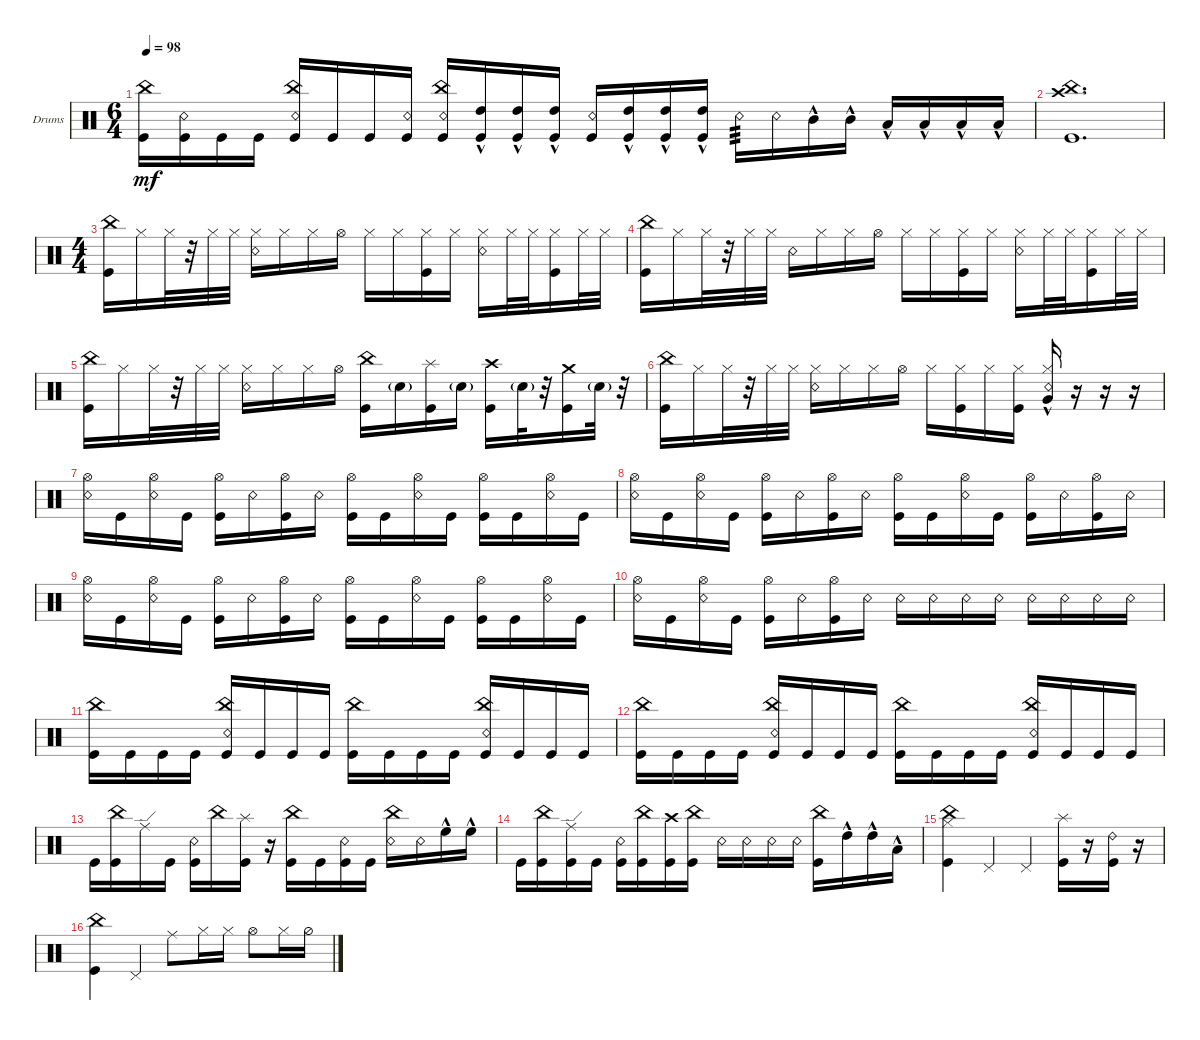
\defaultSystemsLayout 4
\bracketExtendMode groupsimilarinstruments
\firstSystemTrackNameOrientation horizontal
\otherSystemsTrackNameOrientation horizontal
\track ("Drumkit" "Drums") {instrument percussion}
\staff {score}
\articulation defaults
\ts (6 4)
\tempo 98
\clef neutral
\scale
0.333333
\ks c
("Kick (hit)" "China (hit)").16{dy mf} ("Kick (hit)" "Snare (rim shot)").16 "Kick (hit)".16 "Kick (hit)".16 ("Kick (hit)" "China (hit)" "Snare (rim shot)").16 "Kick (hit)".16 "Kick (hit)".16 ("Kick (hit)" "Snare (rim shot)").16 ("Kick (hit)" "China (hit)" "Snare (rim shot)").16 ("Kick (hit)" "High Tom (hit)"{hac}).16 ("Kick (hit)" "High Tom (hit)"{hac}).16 ("Kick (hit)" "High Tom (hit)"{hac}).16 ("Kick (hit)" "Snare (rim shot)").16 ("Kick (hit)" "High Tom (hit)"{hac}).16 ("Kick (hit)" "High Tom (hit)"{hac}).16 ("Kick (hit)" "High Tom (hit)"{hac}).16 "Snare (rim shot)".16{tp 3} "Snare (rim shot)".16 "Mid Tom (hit)"{hac}.16 "Mid Tom (hit)"{hac}.16 "Low Tom (hit)"{hac}.16 "Low Tom (hit)"{hac}.16 "Low Tom (hit)"{hac}.16 "Low Tom (hit)"{hac}.16 |
("Kick (hit)" "China (hit)" "Crash high (hit)").1{d} |
\ts (4 4)
\scale
0.333333 ("Kick (hit)" "China (hit)").16 "Hi-Hat (closed)".16 "Hi-Hat (closed)".32 r.32 "Hi-Hat (closed)".32 "Hi-Hat (closed)".32 ("Hi-Hat (closed)" "Snare (rim shot)").16 "Hi-Hat (closed)".16 "Hi-Hat (closed)".16 "Hi-Hat (open)".16 "Hi-Hat (closed)".16 "Hi-Hat (closed)".16 ("Hi-Hat (closed)" "Kick (hit)").16 "Hi-Hat (closed)".16 ("Hi-Hat (closed)" "Snare (rim shot)").16 "Hi-Hat (closed)".32 "Hi-Hat (closed)".32 ("Hi-Hat (closed)" "Kick (hit)").16 "Hi-Hat (closed)".32 "Hi-Hat (closed)".32 |
\scale
0.333333 ("Kick (hit)" "China (hit)").16 "Hi-Hat (closed)".16 "Hi-Hat (closed)".32 r.32 "Hi-Hat (closed)".32 "Hi-Hat (closed)".32 "Snare (rim shot)".16 "Hi-Hat (closed)".16 "Hi-Hat (closed)".16 "Hi-Hat (open)".16 "Hi-Hat (closed)".16 "Hi-Hat (closed)".16 ("Hi-Hat (closed)" "Kick (hit)").16 "Hi-Hat (closed)".16 ("Hi-Hat (closed)" "Snare (rim shot)").16 "Hi-Hat (closed)".32 "Hi-Hat (closed)".32 ("Hi-Hat (closed)" "Kick (hit)").16 "Hi-Hat (closed)".32 "Hi-Hat (closed)".32 |
\scale
0.333333 ("Kick (hit)" "China (hit)").16 "Hi-Hat (closed)".16 "Hi-Hat (closed)".32 r.32 "Hi-Hat (closed)".32 "Hi-Hat (closed)".32 ("Hi-Hat (closed)" "Snare (rim shot)").16 "Hi-Hat (closed)".16 "Hi-Hat (closed)".16 "Hi-Hat (open)".16 ("China (hit)" "Kick (hit)").16 "Snare (hit) 2"{g}.16 ("Kick (hit)" "Splash (hit)").16 "Snare (hit) 2"{g}.16 ("Kick (hit)" "Crash high (hit)").16 "Snare (hit) 2"{g}.32 r.32 ("Kick (hit)" "Crash medium (hit)").16 "Snare (hit) 2"{g}.32 r.32 |
\scale
0.333333 ("Kick (hit)" "China (hit)").16 "Hi-Hat (closed)".16 "Hi-Hat (closed)".32 r.32 "Hi-Hat (closed)".32 "Hi-Hat (closed)".32 ("Hi-Hat (closed)" "Snare (rim shot)").16 "Hi-Hat (closed)".16 "Hi-Hat (closed)".16 "Hi-Hat (open)".16 "Hi-Hat (closed)".16 ("Hi-Hat (closed)" "Kick (hit)").16 "Hi-Hat (closed)".16 ("Hi-Hat (closed)" "Kick (hit)").16 ("Hi-Hat (closed)" "Snare (rim shot)" "Very Low Tom (hit)"{hac}).16 r.16 r.16 r.16 |
\scale
0.333333 ("Snare (rim shot)" "Hi-Hat (open)").16 "Kick (hit)".16 ("Snare (rim shot)" "Hi-Hat (open)").16 "Kick (hit)".16 ("Kick (hit)" "Hi-Hat (open)").16 "Snare (rim shot)".16 ("Kick (hit)" "Hi-Hat (open)").16 "Snare (rim shot)".16 ("Kick (hit)" "Hi-Hat (open)").16 "Kick (hit)".16 ("Snare (rim shot)" "Hi-Hat (open)").16 "Kick (hit)".16 ("Kick (hit)" "Hi-Hat (open)").16 "Kick (hit)".16 ("Snare (rim shot)" "Hi-Hat (open)").16 "Kick (hit)".16 |
("Snare (rim shot)" "Hi-Hat (open)").16 "Kick (hit)".16 ("Snare (rim shot)" "Hi-Hat (open)").16 "Kick (hit)".16 ("Kick (hit)" "Hi-Hat (open)").16 "Snare (rim shot)".16 ("Kick (hit)" "Hi-Hat (open)").16 "Snare (rim shot)".16 ("Kick (hit)" "Hi-Hat (open)").16 "Kick (hit)".16 ("Snare (rim shot)" "Hi-Hat (open)").16 "Kick (hit)".16 ("Kick (hit)" "Hi-Hat (open)").16 "Snare (rim shot)".16 ("Kick (hit)" "Hi-Hat (open)").16 "Snare (rim shot)".16 |
("Snare (rim shot)" "Hi-Hat (open)").16 "Kick (hit)".16 ("Snare (rim shot)" "Hi-Hat (open)").16 "Kick (hit)".16 ("Kick (hit)" "Hi-Hat (open)").16 "Snare (rim shot)".16 ("Kick (hit)" "Hi-Hat (open)").16 "Snare (rim shot)".16 ("Kick (hit)" "Hi-Hat (open)").16 "Kick (hit)".16 ("Snare (rim shot)" "Hi-Hat (open)").16 "Kick (hit)".16 ("Kick (hit)" "Hi-Hat (open)").16 "Kick (hit)".16 ("Snare (rim shot)" "Hi-Hat (open)").16 "Kick (hit)".16 |
("Snare (rim shot)" "Hi-Hat (open)").16 "Kick (hit)".16 ("Snare (rim shot)" "Hi-Hat (open)").16 "Kick (hit)".16 ("Kick (hit)" "Hi-Hat (open)").16 "Snare (rim shot)".16 ("Kick (hit)" "Hi-Hat (open)").16 "Snare (rim shot)".16 "Snare (rim shot)".16 "Snare (rim shot)".16 "Snare (rim shot)".16 "Snare (rim shot)".16 "Snare (rim shot)".16 "Snare (rim shot)".16 "Snare (rim shot)".16 "Snare (rim shot)".16 |
\scale
0.333333 ("Kick (hit)" "China (hit)").16 "Kick (hit)".16 "Kick (hit)".16 "Kick (hit)".16 ("Kick (hit)" "China (hit)" "Snare (rim shot)").16 "Kick (hit)".16 "Kick (hit)".16 "Kick (hit)".16 ("Kick (hit)" "China (hit)").16 "Kick (hit)".16 "Kick (hit)".16 "Kick (hit)".16 ("Kick (hit)" "Snare (rim shot)" "China (hit)").16 "Kick (hit)".16 "Kick (hit)".16 "Kick (hit)".16 |
\scale
0.333333 ("Kick (hit)" "China (hit)").16 "Kick (hit)".16 "Kick (hit)".16 "Kick (hit)".16 ("Kick (hit)" "China (hit)" "Snare (rim shot)").16 "Kick (hit)".16 "Kick (hit)".16 "Kick (hit)".16 ("Kick (hit)" "China (hit)").16 "Kick (hit)".16 "Kick (hit)".16 "Kick (hit)".16 ("Kick (hit)" "Snare (rim shot)" "China (hit)").16 "Kick (hit)".16 "Kick (hit)".16 "Kick (hit)".16 |
\scale
0.333333 "Kick (hit)".16 ("Kick (hit)" "China (hit)").16 "Ride (edge)".16 "Kick (hit)".16 ("Kick (hit)" "Snare (rim shot)").16 "China (hit)".16 ("Kick (hit)" "Splash (hit)").16 r.16 ("Kick (hit)" "China (hit)").16 "Kick (hit)".16 ("Kick (hit)" "Snare (rim shot)").16 "Kick (hit)".16 ("Snare (rim shot)" "China (hit)").16 "Snare (rim shot)".16 "High Floor Tom (hit)"{hac}.16 "High Floor Tom (hit)"{hac}.16 |
\scale
0.333333 "Kick (hit)".16 ("Kick (hit)" "China (hit)").16 ("Kick (hit)" "Ride (edge)").16 "Kick (hit)".16 ("Kick (hit)" "Snare (rim shot)").16 ("Kick (hit)" "China (hit)").16 ("Kick (hit)" "Crash high (hit)").16 ("Kick (hit)" "China (hit)").16 "Snare (rim shot)".16 "Snare (rim shot)".16 "Snare (rim shot)".16 "Snare (rim shot)".16 ("Kick (hit)" "China (hit)").16 "High Tom (hit)"{hac}.16 "High Tom (hit)"{hac}.16 "Low Tom (hit)"{hac}.16 |
\scale
0.333333 ("China (hit)" "Kick (hit)" "Hi-Hat (closed)").4 "Pedal Hi-Hat (hit)".4 "Pedal Hi-Hat (hit)".4 ("Splash (hit)" "Kick (hit)").16 r.16 ("Kick (hit)" "Ride (bell) 2").16 r.16 |
\scale
0.333333 ("Kick (hit)" "China (hit)").4 "Pedal Hi-Hat (hit)".4 "Ride (middle)".8 "Hi-Hat (closed)".16 "Hi-Hat (closed)".16 "Hi-Hat (open)".8 "Hi-Hat (closed)".16 "Hi-Hat (half)".16
